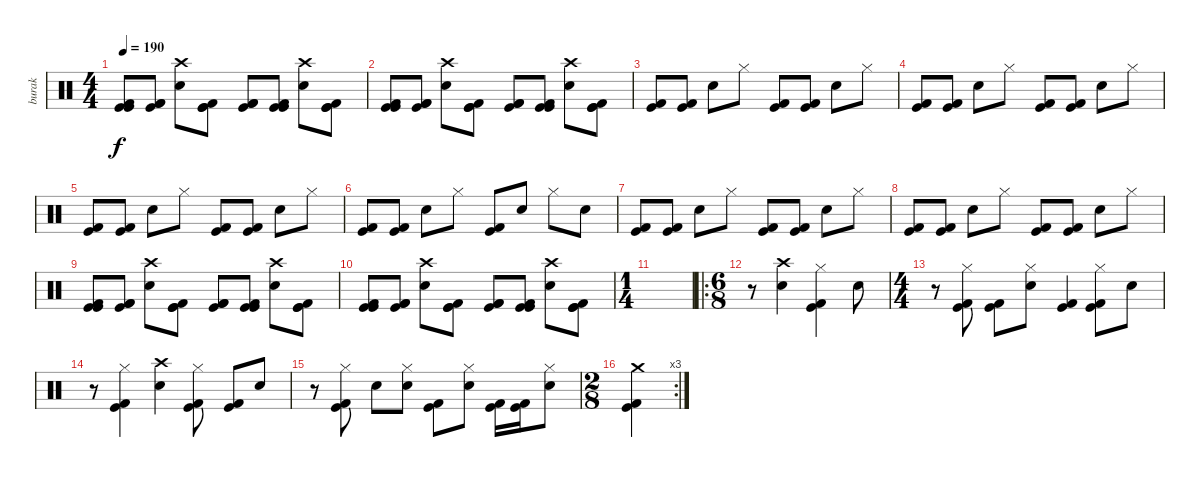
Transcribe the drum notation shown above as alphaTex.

\track ("burak" "burak") {instrument percussion}
\staff {score}
\articulation defaults
\ts (4 4)
\tempo 190
\clef neutral
\ks c
("Kick (hit)" "Kick (hit)" "Kick (hit) 2").8{dy f} ("Kick (hit)" "Kick (hit) 2" "Kick (hit) 2").8 ("Crash high (hit)" "Electric Snare (hit)").8 ("Kick (hit)" "Kick (hit)" "Kick (hit) 2").8 ("Kick (hit) 2" "Kick (hit)" "Kick (hit) 2").8 ("Kick (hit)" "Kick (hit)" "Kick (hit) 2").8 ("Crash high (hit)" "Electric Snare (hit)").8 ("Kick (hit)" "Kick (hit)" "Kick (hit) 2").8 |
("Kick (hit)" "Kick (hit)" "Kick (hit) 2").8 ("Kick (hit)" "Kick (hit) 2" "Kick (hit) 2").8 ("Crash high (hit)" "Electric Snare (hit)").8 ("Kick (hit)" "Kick (hit)" "Kick (hit) 2").8 ("Kick (hit) 2" "Kick (hit)" "Kick (hit) 2").8 ("Kick (hit)" "Kick (hit)" "Kick (hit) 2").8 ("Crash high (hit)" "Electric Snare (hit)").8 ("Kick (hit)" "Kick (hit)" "Kick (hit) 2").8 |
("Kick (hit)" "Kick (hit) 2").8 ("Kick (hit)" "Kick (hit) 2").8 "Electric Snare (hit)".8 "Hi-Hat (closed)".8 ("Kick (hit)" "Kick (hit) 2").8 ("Kick (hit)" "Kick (hit) 2").8 "Electric Snare (hit)".8 "Hi-Hat (closed)".8 |
("Kick (hit)" "Kick (hit) 2").8 ("Kick (hit)" "Kick (hit) 2").8 "Electric Snare (hit)".8 "Hi-Hat (closed)".8 ("Kick (hit)" "Kick (hit) 2").8 ("Kick (hit)" "Kick (hit) 2").8 "Electric Snare (hit)".8 "Hi-Hat (closed)".8 |
("Kick (hit)" "Kick (hit) 2").8 ("Kick (hit)" "Kick (hit) 2").8 "Electric Snare (hit)".8 "Hi-Hat (closed)".8 ("Kick (hit)" "Kick (hit) 2").8 ("Kick (hit)" "Kick (hit) 2").8 "Electric Snare (hit)".8 "Hi-Hat (closed)".8 |
("Kick (hit)" "Kick (hit) 2").8 ("Kick (hit)" "Kick (hit) 2").8 "Electric Snare (hit)".8 "Hi-Hat (closed)".8 ("Kick (hit)" "Kick (hit) 2").8 "Electric Snare (hit)".8 "Hi-Hat (closed)".8 "Electric Snare (hit)".8 |
("Kick (hit)" "Kick (hit) 2").8 ("Kick (hit)" "Kick (hit) 2").8 "Electric Snare (hit)".8 "Hi-Hat (closed)".8 ("Kick (hit)" "Kick (hit) 2").8 ("Kick (hit)" "Kick (hit) 2").8 "Electric Snare (hit)".8 "Hi-Hat (closed)".8 |
("Kick (hit)" "Kick (hit) 2").8 ("Kick (hit)" "Kick (hit) 2").8 "Electric Snare (hit)".8 "Hi-Hat (closed)".8 ("Kick (hit)" "Kick (hit) 2").8 ("Kick (hit)" "Kick (hit) 2").8 "Electric Snare (hit)".8 "Hi-Hat (closed)".8 |
("Kick (hit)" "Kick (hit)" "Kick (hit) 2").8 ("Kick (hit)" "Kick (hit) 2" "Kick (hit) 2").8 ("Crash high (hit)" "Electric Snare (hit)").8 ("Kick (hit)" "Kick (hit)" "Kick (hit) 2").8 ("Kick (hit) 2" "Kick (hit)" "Kick (hit) 2").8 ("Kick (hit)" "Kick (hit)" "Kick (hit) 2").8 ("Crash high (hit)" "Electric Snare (hit)").8 ("Kick (hit)" "Kick (hit)" "Kick (hit) 2").8 |
("Kick (hit)" "Kick (hit)" "Kick (hit) 2").8 ("Kick (hit)" "Kick (hit) 2" "Kick (hit) 2").8 ("Crash high (hit)" "Electric Snare (hit)").8 ("Kick (hit)" "Kick (hit)" "Kick (hit) 2").8 ("Kick (hit) 2" "Kick (hit)" "Kick (hit) 2").8 ("Kick (hit)" "Kick (hit)" "Kick (hit) 2").8 ("Crash high (hit)" "Electric Snare (hit)").8 ("Kick (hit)" "Kick (hit)" "Kick (hit) 2").8 |
\ts (1 4)
|
\ro
\ts (6 8)
r.8 ("Electric Snare (hit)" "Crash high (hit)").4 ("Hi-Hat (closed)" "Kick (hit)" "Kick (hit) 2").4 "Electric Snare (hit)".8 |
\ts (4 4)
r.8 ("Hi-Hat (closed)" "Kick (hit)" "Kick (hit) 2").8 ("Kick (hit)" "Kick (hit) 2").8 ("Electric Snare (hit)" "Hi-Hat (closed)").8 ("Kick (hit)" "Kick (hit) 2").4 ("Hi-Hat (closed)" "Kick (hit)" "Kick (hit) 2").8 "Electric Snare (hit)".8 |
r.8 ("Hi-Hat (closed)" "Kick (hit)" "Kick (hit) 2").4 ("Electric Snare (hit)" "Crash high (hit)").4 ("Hi-Hat (closed)" "Kick (hit)" "Kick (hit) 2").8 ("Kick (hit)" "Kick (hit) 2").8 "Electric Snare (hit)".8 |
r.8 ("Hi-Hat (closed)" "Kick (hit)" "Kick (hit) 2").8 "Electric Snare (hit)".8 ("Electric Snare (hit)" "Hi-Hat (closed)").8 ("Kick (hit)" "Kick (hit) 2").8 ("Electric Snare (hit)" "Hi-Hat (closed)").8 ("Kick (hit)" "Kick (hit) 2").16 ("Kick (hit)" "Kick (hit) 2").16 ("Hi-Hat (closed)" "Electric Snare (hit)").8 |
\rc 3
\ts (2 8)
("Crash medium (hit)" "Kick (hit)" "Kick (hit) 2").4
